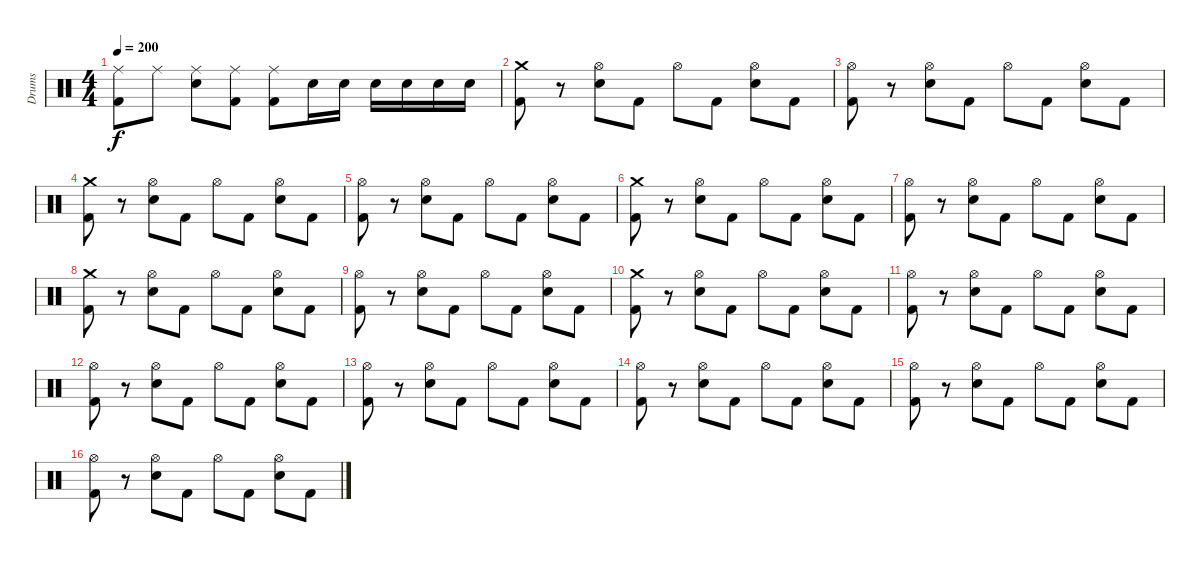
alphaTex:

\track ("Drums" "Drums") {instrument percussion}
\staff {score}
\articulation defaults
\ts (4 4)
\tempo 200
\clef neutral
\ks c
("Kick (hit) 2" "Ride (middle)").8{dy f} "Ride (middle)".8 ("Electric Snare (hit)" "Ride (middle)").8 ("Kick (hit) 2" "Ride (middle)").8 ("Kick (hit) 2" "Ride (middle)").8 "Electric Snare (hit)".16 "Electric Snare (hit)".16 "Electric Snare (hit)".16 "Electric Snare (hit)".16 "Electric Snare (hit)".16 "Electric Snare (hit)".16 |
("Kick (hit) 2" "Crash medium (hit)").8 r.8 ("Electric Snare (hit)" "Hi-Hat (open)").8 "Kick (hit) 2".8 "Hi-Hat (open)".8 "Kick (hit) 2".8 ("Electric Snare (hit)" "Hi-Hat (open)").8 "Kick (hit) 2".8 |
("Kick (hit) 2" "Hi-Hat (open)").8 r.8 ("Electric Snare (hit)" "Hi-Hat (open)").8 "Kick (hit) 2".8 "Hi-Hat (open)".8 "Kick (hit) 2".8 ("Electric Snare (hit)" "Hi-Hat (open)").8 "Kick (hit) 2".8 |
("Kick (hit) 2" "Crash medium (hit)").8 r.8 ("Electric Snare (hit)" "Hi-Hat (open)").8 "Kick (hit) 2".8 "Hi-Hat (open)".8 "Kick (hit) 2".8 ("Electric Snare (hit)" "Hi-Hat (open)").8 "Kick (hit) 2".8 |
("Kick (hit) 2" "Hi-Hat (open)").8 r.8 ("Electric Snare (hit)" "Hi-Hat (open)").8 "Kick (hit) 2".8 "Hi-Hat (open)".8 "Kick (hit) 2".8 ("Electric Snare (hit)" "Hi-Hat (open)").8 "Kick (hit) 2".8 |
("Kick (hit) 2" "Crash medium (hit)").8 r.8 ("Electric Snare (hit)" "Hi-Hat (open)").8 "Kick (hit) 2".8 "Hi-Hat (open)".8 "Kick (hit) 2".8 ("Electric Snare (hit)" "Hi-Hat (open)").8 "Kick (hit) 2".8 |
("Kick (hit) 2" "Hi-Hat (open)").8 r.8 ("Electric Snare (hit)" "Hi-Hat (open)").8 "Kick (hit) 2".8 "Hi-Hat (open)".8 "Kick (hit) 2".8 ("Electric Snare (hit)" "Hi-Hat (open)").8 "Kick (hit) 2".8 |
("Kick (hit) 2" "Crash medium (hit)").8 r.8 ("Electric Snare (hit)" "Hi-Hat (open)").8 "Kick (hit) 2".8 "Hi-Hat (open)".8 "Kick (hit) 2".8 ("Electric Snare (hit)" "Hi-Hat (open)").8 "Kick (hit) 2".8 |
("Kick (hit) 2" "Hi-Hat (open)").8 r.8 ("Electric Snare (hit)" "Hi-Hat (open)").8 "Kick (hit) 2".8 "Hi-Hat (open)".8 "Kick (hit) 2".8 ("Electric Snare (hit)" "Hi-Hat (open)").8 "Kick (hit) 2".8 |
("Kick (hit) 2" "Crash medium (hit)").8 r.8 ("Electric Snare (hit)" "Hi-Hat (open)").8 "Kick (hit) 2".8 "Hi-Hat (open)".8 "Kick (hit) 2".8 ("Electric Snare (hit)" "Hi-Hat (open)").8 "Kick (hit) 2".8 |
("Kick (hit) 2" "Hi-Hat (open)").8 r.8 ("Electric Snare (hit)" "Hi-Hat (open)").8 "Kick (hit) 2".8 "Hi-Hat (open)".8 "Kick (hit) 2".8 ("Electric Snare (hit)" "Hi-Hat (open)").8 "Kick (hit) 2".8 |
("Kick (hit) 2" "Hi-Hat (open)").8 r.8 ("Electric Snare (hit)" "Hi-Hat (open)").8 "Kick (hit) 2".8 "Hi-Hat (open)".8 "Kick (hit) 2".8 ("Electric Snare (hit)" "Hi-Hat (open)").8 "Kick (hit) 2".8 |
("Kick (hit) 2" "Hi-Hat (open)").8 r.8 ("Electric Snare (hit)" "Hi-Hat (open)").8 "Kick (hit) 2".8 "Hi-Hat (open)".8 "Kick (hit) 2".8 ("Electric Snare (hit)" "Hi-Hat (open)").8 "Kick (hit) 2".8 |
("Kick (hit) 2" "Hi-Hat (open)").8 r.8 ("Electric Snare (hit)" "Hi-Hat (open)").8 "Kick (hit) 2".8 "Hi-Hat (open)".8 "Kick (hit) 2".8 ("Electric Snare (hit)" "Hi-Hat (open)").8 "Kick (hit) 2".8 |
("Kick (hit) 2" "Hi-Hat (open)").8 r.8 ("Electric Snare (hit)" "Hi-Hat (open)").8 "Kick (hit) 2".8 "Hi-Hat (open)".8 "Kick (hit) 2".8 ("Electric Snare (hit)" "Hi-Hat (open)").8 "Kick (hit) 2".8 |
("Kick (hit) 2" "Hi-Hat (open)").8 r.8 ("Electric Snare (hit)" "Hi-Hat (open)").8 "Kick (hit) 2".8 "Hi-Hat (open)".8 "Kick (hit) 2".8 ("Electric Snare (hit)" "Hi-Hat (open)").8 "Kick (hit) 2".8
